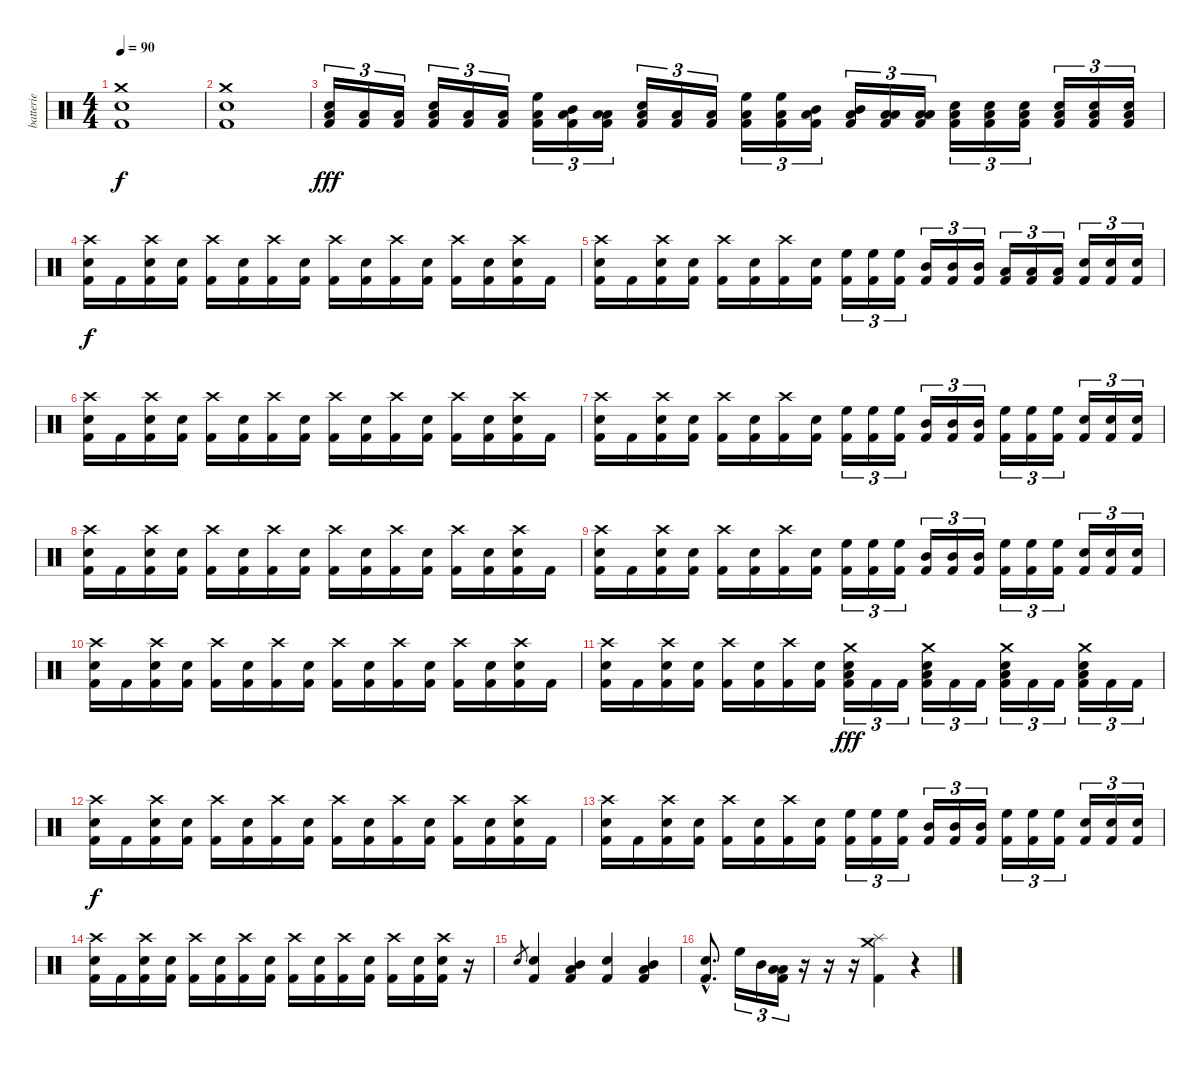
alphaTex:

\track ("batterie" "batterie") {instrument percussion}
\staff {score}
\articulation defaults
\ts (4 4)
\tempo 90
\clef neutral
\ks c
("Crash medium (hit)" "Electric Snare (hit)" "Kick (hit) 2").1{dy f} |
("Crash medium (hit)" "Electric Snare (hit)" "Kick (hit) 2").1 |
("Electric Snare (hit)" "Low Tom (hit)" "Kick (hit) 2").16{tu (3 2) dy fff} ("Low Tom (hit)" "Kick (hit) 2").16{tu (3 2)} ("Low Tom (hit)" "Kick (hit) 2").16{tu (3 2)} ("Electric Snare (hit)" "Low Tom (hit)" "Kick (hit) 2").16{tu (3 2)} ("Low Tom (hit)" "Kick (hit) 2").16{tu (3 2)} ("Low Tom (hit)" "Kick (hit) 2").16{tu (3 2)} ("High Floor Tom (hit)" "Low Tom (hit)" "Kick (hit) 2").16{tu (3 2)} ("Mid Tom (hit)" "Low Tom (hit)" "Kick (hit) 2").16{tu (3 2)} ("Low Tom (hit)" "Low Tom (hit)" "Kick (hit) 2").16{tu (3 2)} ("Electric Snare (hit)" "Low Tom (hit)" "Kick (hit) 2").16{tu (3 2)} ("Low Tom (hit)" "Kick (hit) 2").16{tu (3 2)} ("Low Tom (hit)" "Kick (hit) 2").16{tu (3 2)} ("High Floor Tom (hit)" "Low Tom (hit)" "Kick (hit) 2").16{tu (3 2)} ("High Floor Tom (hit)" "Low Tom (hit)" "Kick (hit) 2").16{tu (3 2)} ("Mid Tom (hit)" "Low Tom (hit)" "Kick (hit) 2").16{tu (3 2)} ("Mid Tom (hit)" "Low Tom (hit)" "Kick (hit) 2").16{tu (3 2)} ("Low Tom (hit)" "Low Tom (hit)" "Kick (hit) 2").16{tu (3 2)} ("Low Tom (hit)" "Low Tom (hit)" "Kick (hit) 2").16{tu (3 2)} ("Electric Snare (hit)" "Low Tom (hit)" "Kick (hit) 2").16{tu (3 2)} ("Electric Snare (hit)" "Low Tom (hit)" "Kick (hit) 2").16{tu (3 2)} ("Electric Snare (hit)" "Low Tom (hit)" "Kick (hit) 2").16{tu (3 2)} ("Snare (hit) 2" "Low Tom (hit)" "Kick (hit) 2").16{tu (3 2)} ("Snare (hit) 2" "Low Tom (hit)" "Kick (hit) 2").16{tu (3 2)} ("Snare (hit) 2" "Low Tom (hit)" "Kick (hit) 2").16{tu (3 2)} |
("Crash high (hit)" "Electric Snare (hit)" "Kick (hit) 2").16{dy f} "Kick (hit) 2".16 ("Crash high (hit)" "Electric Snare (hit)" "Kick (hit) 2").16 ("Electric Snare (hit)" "Kick (hit) 2").16 ("Crash high (hit)" "Kick (hit) 2").16 ("Electric Snare (hit)" "Kick (hit) 2").16 ("Crash high (hit)" "Kick (hit) 2").16 ("Electric Snare (hit)" "Kick (hit) 2").16 ("Crash high (hit)" "Kick (hit) 2").16 ("Electric Snare (hit)" "Kick (hit) 2").16 ("Crash high (hit)" "Kick (hit) 2").16 ("Electric Snare (hit)" "Kick (hit) 2").16 ("Crash high (hit)" "Kick (hit) 2").16 ("Electric Snare (hit)" "Kick (hit) 2").16 ("Crash high (hit)" "Electric Snare (hit)" "Kick (hit) 2").16 "Kick (hit) 2".16 |
("Crash high (hit)" "Electric Snare (hit)" "Kick (hit) 2").16 "Kick (hit) 2".16 ("Crash high (hit)" "Electric Snare (hit)" "Kick (hit) 2").16 ("Electric Snare (hit)" "Kick (hit) 2").16 ("Crash high (hit)" "Kick (hit) 2").16 ("Electric Snare (hit)" "Kick (hit) 2").16 ("Crash high (hit)" "Kick (hit) 2").16 ("Electric Snare (hit)" "Kick (hit) 2").16 ("High Floor Tom (hit)" "Kick (hit) 2").16{tu (3 2)} ("High Floor Tom (hit)" "Kick (hit) 2").16{tu (3 2)} ("High Floor Tom (hit)" "Kick (hit) 2").16{tu (3 2)} ("Mid Tom (hit)" "Kick (hit) 2").16{tu (3 2)} ("Mid Tom (hit)" "Kick (hit) 2").16{tu (3 2)} ("Mid Tom (hit)" "Kick (hit) 2").16{tu (3 2)} ("Low Tom (hit)" "Kick (hit) 2").16{tu (3 2)} ("Low Tom (hit)" "Kick (hit) 2").16{tu (3 2)} ("Low Tom (hit)" "Kick (hit) 2").16{tu (3 2)} ("Electric Snare (hit)" "Kick (hit) 2").16{tu (3 2)} ("Electric Snare (hit)" "Kick (hit) 2").16{tu (3 2)} ("Electric Snare (hit)" "Kick (hit) 2").16{tu (3 2)} |
("Crash high (hit)" "Electric Snare (hit)" "Kick (hit) 2").16 "Kick (hit) 2".16 ("Crash high (hit)" "Electric Snare (hit)" "Kick (hit) 2").16 ("Electric Snare (hit)" "Kick (hit) 2").16 ("Crash high (hit)" "Kick (hit) 2").16 ("Electric Snare (hit)" "Kick (hit) 2").16 ("Crash high (hit)" "Kick (hit) 2").16 ("Electric Snare (hit)" "Kick (hit) 2").16 ("Crash high (hit)" "Kick (hit) 2").16 ("Electric Snare (hit)" "Kick (hit) 2").16 ("Crash high (hit)" "Kick (hit) 2").16 ("Electric Snare (hit)" "Kick (hit) 2").16 ("Crash high (hit)" "Kick (hit) 2").16 ("Electric Snare (hit)" "Kick (hit) 2").16 ("Crash high (hit)" "Electric Snare (hit)" "Kick (hit) 2").16 "Kick (hit) 2".16 |
("Crash high (hit)" "Electric Snare (hit)" "Kick (hit) 2").16 "Kick (hit) 2".16 ("Crash high (hit)" "Electric Snare (hit)" "Kick (hit) 2").16 ("Electric Snare (hit)" "Kick (hit) 2").16 ("Crash high (hit)" "Kick (hit) 2").16 ("Electric Snare (hit)" "Kick (hit) 2").16 ("Crash high (hit)" "Kick (hit) 2").16 ("Electric Snare (hit)" "Kick (hit) 2").16 ("High Floor Tom (hit)" "Kick (hit) 2").16{tu (3 2)} ("High Floor Tom (hit)" "Kick (hit) 2").16{tu (3 2)} ("High Floor Tom (hit)" "Kick (hit) 2").16{tu (3 2)} ("Mid Tom (hit)" "Kick (hit) 2").16{tu (3 2)} ("Mid Tom (hit)" "Kick (hit) 2").16{tu (3 2)} ("Mid Tom (hit)" "Kick (hit) 2").16{tu (3 2)} ("High Floor Tom (hit)" "Kick (hit) 2").16{tu (3 2)} ("High Floor Tom (hit)" "Kick (hit) 2").16{tu (3 2)} ("High Floor Tom (hit)" "Kick (hit) 2").16{tu (3 2)} ("Electric Snare (hit)" "Kick (hit) 2").16{tu (3 2)} ("Electric Snare (hit)" "Kick (hit) 2").16{tu (3 2)} ("Electric Snare (hit)" "Kick (hit) 2").16{tu (3 2)} |
("Crash high (hit)" "Electric Snare (hit)" "Kick (hit) 2").16 "Kick (hit) 2".16 ("Crash high (hit)" "Electric Snare (hit)" "Kick (hit) 2").16 ("Electric Snare (hit)" "Kick (hit) 2").16 ("Crash high (hit)" "Kick (hit) 2").16 ("Electric Snare (hit)" "Kick (hit) 2").16 ("Crash high (hit)" "Kick (hit) 2").16 ("Electric Snare (hit)" "Kick (hit) 2").16 ("Crash high (hit)" "Kick (hit) 2").16 ("Electric Snare (hit)" "Kick (hit) 2").16 ("Crash high (hit)" "Kick (hit) 2").16 ("Electric Snare (hit)" "Kick (hit) 2").16 ("Crash high (hit)" "Kick (hit) 2").16 ("Electric Snare (hit)" "Kick (hit) 2").16 ("Crash high (hit)" "Electric Snare (hit)" "Kick (hit) 2").16 "Kick (hit) 2".16 |
("Crash high (hit)" "Electric Snare (hit)" "Kick (hit) 2").16 "Kick (hit) 2".16 ("Crash high (hit)" "Electric Snare (hit)" "Kick (hit) 2").16 ("Electric Snare (hit)" "Kick (hit) 2").16 ("Crash high (hit)" "Kick (hit) 2").16 ("Electric Snare (hit)" "Kick (hit) 2").16 ("Crash high (hit)" "Kick (hit) 2").16 ("Electric Snare (hit)" "Kick (hit) 2").16 ("High Floor Tom (hit)" "Kick (hit) 2").16{tu (3 2)} ("High Floor Tom (hit)" "Kick (hit) 2").16{tu (3 2)} ("High Floor Tom (hit)" "Kick (hit) 2").16{tu (3 2)} ("Mid Tom (hit)" "Kick (hit) 2").16{tu (3 2)} ("Mid Tom (hit)" "Kick (hit) 2").16{tu (3 2)} ("Mid Tom (hit)" "Kick (hit) 2").16{tu (3 2)} ("High Floor Tom (hit)" "Kick (hit) 2").16{tu (3 2)} ("High Floor Tom (hit)" "Kick (hit) 2").16{tu (3 2)} ("High Floor Tom (hit)" "Kick (hit) 2").16{tu (3 2)} ("Electric Snare (hit)" "Kick (hit) 2").16{tu (3 2)} ("Electric Snare (hit)" "Kick (hit) 2").16{tu (3 2)} ("Electric Snare (hit)" "Kick (hit) 2").16{tu (3 2)} |
("Crash high (hit)" "Electric Snare (hit)" "Kick (hit) 2").16 "Kick (hit) 2".16 ("Crash high (hit)" "Electric Snare (hit)" "Kick (hit) 2").16 ("Electric Snare (hit)" "Kick (hit) 2").16 ("Crash high (hit)" "Kick (hit) 2").16 ("Electric Snare (hit)" "Kick (hit) 2").16 ("Crash high (hit)" "Kick (hit) 2").16 ("Electric Snare (hit)" "Kick (hit) 2").16 ("Crash high (hit)" "Kick (hit) 2").16 ("Electric Snare (hit)" "Kick (hit) 2").16 ("Crash high (hit)" "Kick (hit) 2").16 ("Electric Snare (hit)" "Kick (hit) 2").16 ("Crash high (hit)" "Kick (hit) 2").16 ("Electric Snare (hit)" "Kick (hit) 2").16 ("Crash high (hit)" "Electric Snare (hit)" "Kick (hit) 2").16 "Kick (hit) 2".16 |
("Crash high (hit)" "Electric Snare (hit)" "Kick (hit) 2").16 "Kick (hit) 2".16 ("Crash high (hit)" "Electric Snare (hit)" "Kick (hit) 2").16 ("Electric Snare (hit)" "Kick (hit) 2").16 ("Crash high (hit)" "Kick (hit) 2").16 ("Electric Snare (hit)" "Kick (hit) 2").16 ("Crash high (hit)" "Kick (hit) 2").16 ("Electric Snare (hit)" "Kick (hit) 2").16 ("Crash medium (hit)" "Electric Snare (hit)" "Low Floor Tom (hit)" "Kick (hit) 2").16{tu (3 2) dy fff} "Kick (hit) 2".16{tu (3 2)} "Kick (hit) 2".16{tu (3 2)} ("Crash medium (hit)" "Electric Snare (hit)" "Low Floor Tom (hit)" "Kick (hit) 2").16{tu (3 2)} "Kick (hit) 2".16{tu (3 2)} "Kick (hit) 2".16{tu (3 2)} ("Crash medium (hit)" "Electric Snare (hit)" "Low Floor Tom (hit)" "Kick (hit) 2").16{tu (3 2)} "Kick (hit) 2".16{tu (3 2)} "Kick (hit) 2".16{tu (3 2)} ("Crash medium (hit)" "Electric Snare (hit)" "Low Floor Tom (hit)" "Kick (hit) 2").16{tu (3 2)} "Kick (hit) 2".16{tu (3 2)} "Kick (hit) 2".16{tu (3 2)} |
("Crash high (hit)" "Electric Snare (hit)" "Kick (hit) 2").16{dy f} "Kick (hit) 2".16 ("Crash high (hit)" "Electric Snare (hit)" "Kick (hit) 2").16 ("Electric Snare (hit)" "Kick (hit) 2").16 ("Crash high (hit)" "Kick (hit) 2").16 ("Electric Snare (hit)" "Kick (hit) 2").16 ("Crash high (hit)" "Kick (hit) 2").16 ("Electric Snare (hit)" "Kick (hit) 2").16 ("Crash high (hit)" "Kick (hit) 2").16 ("Electric Snare (hit)" "Kick (hit) 2").16 ("Crash high (hit)" "Kick (hit) 2").16 ("Electric Snare (hit)" "Kick (hit) 2").16 ("Crash high (hit)" "Kick (hit) 2").16 ("Electric Snare (hit)" "Kick (hit) 2").16 ("Crash high (hit)" "Electric Snare (hit)" "Kick (hit) 2").16 "Kick (hit) 2".16 |
("Crash high (hit)" "Electric Snare (hit)" "Kick (hit) 2").16 "Kick (hit) 2".16 ("Crash high (hit)" "Electric Snare (hit)" "Kick (hit) 2").16 ("Electric Snare (hit)" "Kick (hit) 2").16 ("Crash high (hit)" "Kick (hit) 2").16 ("Electric Snare (hit)" "Kick (hit) 2").16 ("Crash high (hit)" "Kick (hit) 2").16 ("Electric Snare (hit)" "Kick (hit) 2").16 ("High Floor Tom (hit)" "Kick (hit) 2").16{tu (3 2)} ("High Floor Tom (hit)" "Kick (hit) 2").16{tu (3 2)} ("High Floor Tom (hit)" "Kick (hit) 2").16{tu (3 2)} ("Mid Tom (hit)" "Kick (hit) 2").16{tu (3 2)} ("Mid Tom (hit)" "Kick (hit) 2").16{tu (3 2)} ("Mid Tom (hit)" "Kick (hit) 2").16{tu (3 2)} ("High Floor Tom (hit)" "Kick (hit) 2").16{tu (3 2)} ("High Floor Tom (hit)" "Kick (hit) 2").16{tu (3 2)} ("High Floor Tom (hit)" "Kick (hit) 2").16{tu (3 2)} ("Electric Snare (hit)" "Kick (hit) 2").16{tu (3 2)} ("Electric Snare (hit)" "Kick (hit) 2").16{tu (3 2)} ("Electric Snare (hit)" "Kick (hit) 2").16{tu (3 2)} |
("Crash high (hit)" "Electric Snare (hit)" "Kick (hit) 2").16 "Kick (hit) 2".16 ("Crash high (hit)" "Electric Snare (hit)" "Kick (hit) 2").16 ("Electric Snare (hit)" "Kick (hit) 2").16 ("Crash high (hit)" "Kick (hit) 2").16 ("Electric Snare (hit)" "Kick (hit) 2").16 ("Crash high (hit)" "Kick (hit) 2").16 ("Electric Snare (hit)" "Kick (hit) 2").16 ("Crash high (hit)" "Kick (hit) 2").16 ("Electric Snare (hit)" "Kick (hit) 2").16 ("Crash high (hit)" "Kick (hit) 2").16 ("Electric Snare (hit)" "Kick (hit) 2").16 ("Crash high (hit)" "Kick (hit) 2").16 ("Electric Snare (hit)" "Kick (hit) 2").16 ("Crash high (hit)" "Electric Snare (hit)" "Kick (hit) 2").16 r.16 |
"Electric Snare (hit)".8{gr} ("Electric Snare (hit)" "Kick (hit) 2").4 ("Low Tom (hit)" "Mid Tom (hit)" "Kick (hit) 2").4 ("Electric Snare (hit)" "Kick (hit) 2").4 ("Low Tom (hit)" "Mid Tom (hit)" "Kick (hit) 2").4 |
("Electric Snare (hit)"{hac} "Kick (hit) 2"{hac}).8{d} "High Floor Tom (hit)".16{tu (3 2)} "Mid Tom (hit)".16{tu (3 2)} ("Low Tom (hit)" "Low Floor Tom (hit)" "Kick (hit) 2").16{tu (3 2)} r.16 r.16 r.16 ("Crash medium (hit)" "Splash (hit)" "Kick (hit) 2").4 r.4
